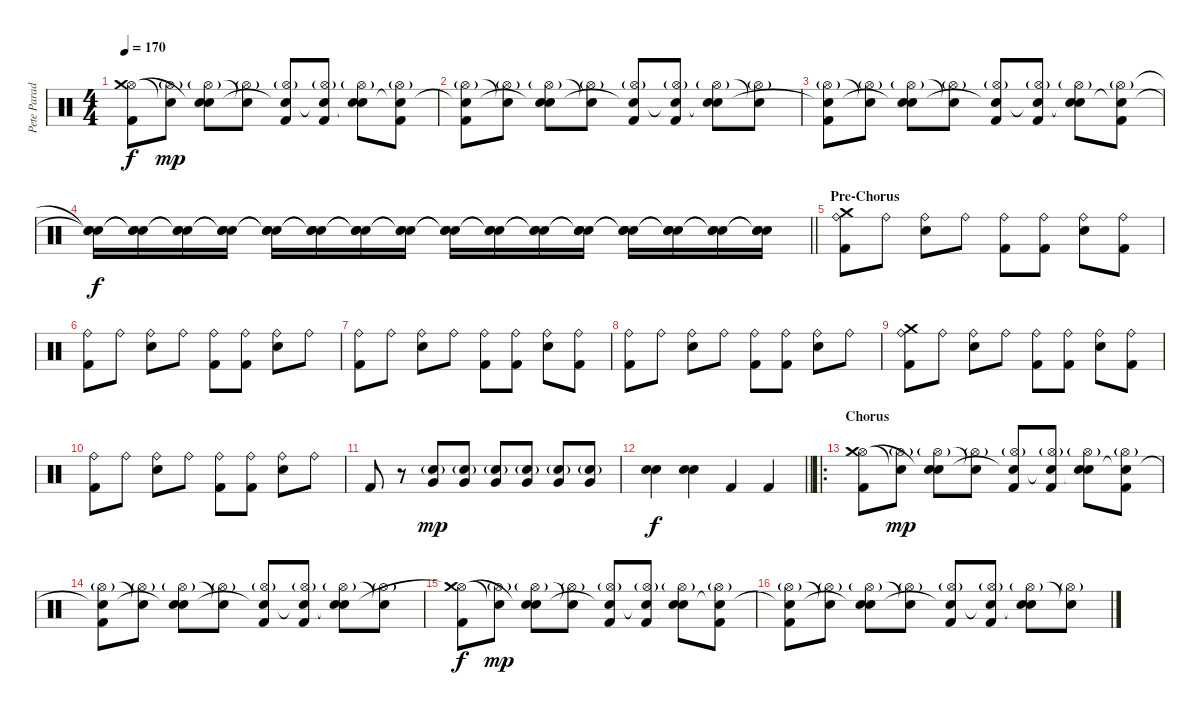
\track ("Pete Parada" "Pete Parad") {instrument percussion}
\staff {score}
\articulation defaults
\ts (4 4)
\tempo 170
\clef neutral
\ks c
("Kick (hit) 2" "Hi-Hat (open)" "Crash medium (hit)").8{dy f} ("Hi-Hat (open)"{g} "Snare (hit)"{t}).8{dy mp} ("Snare (hit) 2" "Hi-Hat (open)"{g} "Snare (hit)"{t}).8 ("Hi-Hat (open)"{g} "Snare (hit)"{t}).8 ("Kick (hit) 2" "Hi-Hat (open)"{g} "Snare (hit)"{t}).8 ("Kick (hit) 2" "Hi-Hat (open)"{g} "Snare (hit)"{t}).8 ("Snare (hit) 2" "Hi-Hat (open)"{g} "Snare (hit)"{t}).8 ("Kick (hit) 2" "Hi-Hat (open)"{g} "Snare (hit)"{t}).8 |
("Kick (hit) 2" "Hi-Hat (open)"{g} "Snare (hit)"{t}).8 ("Hi-Hat (open)"{g} "Snare (hit)"{t}).8 ("Snare (hit) 2" "Hi-Hat (open)"{g} "Snare (hit)"{t}).8 ("Hi-Hat (open)"{g} "Snare (hit)"{t}).8 ("Kick (hit) 2" "Hi-Hat (open)"{g} "Snare (hit)"{t}).8 ("Kick (hit) 2" "Hi-Hat (open)"{g} "Snare (hit)"{t}).8 ("Snare (hit) 2" "Hi-Hat (open)"{g} "Snare (hit)"{t}).8 ("Hi-Hat (open)"{g} "Snare (hit)"{t}).8 |
("Kick (hit) 2" "Hi-Hat (open)"{g} "Snare (hit)"{t}).8 ("Hi-Hat (open)"{g} "Snare (hit)"{t}).8 ("Snare (hit) 2" "Hi-Hat (open)"{g} "Snare (hit)"{t}).8 ("Hi-Hat (open)"{g} "Snare (hit)"{t}).8 ("Kick (hit) 2" "Hi-Hat (open)"{g} "Snare (hit)"{t}).8 ("Kick (hit) 2" "Hi-Hat (open)"{g} "Snare (hit)"{t}).8 ("Snare (hit) 2" "Hi-Hat (open)"{g} "Snare (hit)"{t}).8 ("Kick (hit) 2" "Hi-Hat (open)"{g} "Snare (hit)"{t}).8 |
\barLineRight lightlight
("Snare (hit) 2" "Snare (hit)"{t} "Snare (hit)"{t}).16{dy f} ("Snare (hit) 2" "Snare (hit)"{t} "Snare (hit)"{t}).16 ("Snare (hit) 2" "Snare (hit)"{t} "Snare (hit)"{t}).16 ("Snare (hit) 2" "Snare (hit)"{t} "Snare (hit)"{t}).16 ("Snare (hit) 2" "Snare (hit)"{t} "Snare (hit)"{t}).16 ("Snare (hit) 2" "Snare (hit)"{t} "Snare (hit)"{t}).16 ("Snare (hit) 2" "Snare (hit)"{t} "Snare (hit)"{t}).16 ("Snare (hit) 2" "Snare (hit)"{t} "Snare (hit)"{t}).16 ("Snare (hit) 2" "Snare (hit)"{t} "Snare (hit)"{t}).16 ("Snare (hit) 2" "Snare (hit)"{t} "Snare (hit)"{t}).16 ("Snare (hit) 2" "Snare (hit)"{t} "Snare (hit)"{t}).16 ("Snare (hit) 2" "Snare (hit)"{t} "Snare (hit)"{t}).16 ("Snare (hit) 2" "Snare (hit)"{t} "Snare (hit)"{t}).16 ("Snare (hit) 2" "Snare (hit)"{t} "Snare (hit)"{t}).16 ("Snare (hit) 2" "Snare (hit)"{t} "Snare (hit)"{t}).16 ("Snare (hit) 2" "Snare (hit)"{t} "Snare (hit)"{t}).16 |
\section ("" "Pre-Chorus")
("Kick (hit) 2" "Ride (bell)" "Crash medium (hit)").8 "Ride (bell)".8 ("Snare (hit) 2" "Ride (bell)").8 "Ride (bell)".8 ("Kick (hit) 2" "Ride (bell)").8 ("Kick (hit) 2" "Ride (bell)").8 ("Snare (hit) 2" "Ride (bell)").8 ("Kick (hit) 2" "Ride (bell)").8 |
("Kick (hit) 2" "Ride (bell)").8 "Ride (bell)".8 ("Snare (hit) 2" "Ride (bell)").8 "Ride (bell)".8 ("Kick (hit) 2" "Ride (bell)").8 ("Kick (hit) 2" "Ride (bell)").8 ("Snare (hit) 2" "Ride (bell)").8 "Ride (bell)".8 |
("Kick (hit) 2" "Ride (bell)").8 "Ride (bell)".8 ("Snare (hit) 2" "Ride (bell)").8 "Ride (bell)".8 ("Kick (hit) 2" "Ride (bell)").8 ("Kick (hit) 2" "Ride (bell)").8 ("Snare (hit) 2" "Ride (bell)").8 ("Kick (hit) 2" "Ride (bell)").8 |
("Kick (hit) 2" "Ride (bell)").8 "Ride (bell)".8 ("Snare (hit) 2" "Ride (bell)").8 "Ride (bell)".8 ("Kick (hit) 2" "Ride (bell)").8 ("Kick (hit) 2" "Ride (bell)").8 ("Snare (hit) 2" "Ride (bell)").8 "Ride (bell)".8 |
("Kick (hit) 2" "Ride (bell)" "Crash medium (hit)").8 "Ride (bell)".8 ("Snare (hit) 2" "Ride (bell)").8 "Ride (bell)".8 ("Kick (hit) 2" "Ride (bell)").8 ("Kick (hit) 2" "Ride (bell)").8 ("Snare (hit) 2" "Ride (bell)").8 ("Kick (hit) 2" "Ride (bell)").8 |
("Kick (hit) 2" "Ride (bell)").8 "Ride (bell)".8 ("Snare (hit) 2" "Ride (bell)").8 "Ride (bell)".8 ("Kick (hit) 2" "Ride (bell)").8 ("Kick (hit) 2" "Ride (bell)").8 ("Snare (hit) 2" "Ride (bell)").8 "Ride (bell)".8 |
"Kick (hit) 2".8 r.8 ("Snare (hit) 2"{g} "Very Low Tom (hit)").8{dy mp} ("Snare (hit) 2"{g} "Very Low Tom (hit)").8 ("Snare (hit) 2"{g} "Very Low Tom (hit)").8 ("Snare (hit) 2"{g} "Very Low Tom (hit)").8 ("Snare (hit) 2"{g} "Very Low Tom (hit)").8 ("Snare (hit) 2"{g} "Very Low Tom (hit)").8 |
\barLineRight lightlight
("Snare (hit) 2" "Snare (hit) 2").4{dy f} ("Snare (hit) 2" "Snare (hit) 2").4 "Kick (hit) 2".4 "Kick (hit) 2".4 |
\ro
\section ("" "Chorus")
("Kick (hit) 2" "Hi-Hat (open)" "Crash medium (hit)").8 ("Hi-Hat (open)"{g} "Snare (hit)"{t}).8{dy mp} ("Snare (hit) 2" "Hi-Hat (open)"{g} "Snare (hit)"{t}).8 ("Hi-Hat (open)"{g} "Snare (hit)"{t}).8 ("Kick (hit) 2" "Hi-Hat (open)"{g} "Snare (hit)"{t}).8 ("Kick (hit) 2" "Hi-Hat (open)"{g} "Snare (hit)"{t}).8 ("Snare (hit) 2" "Hi-Hat (open)"{g} "Snare (hit)"{t}).8 ("Kick (hit) 2" "Hi-Hat (open)"{g} "Snare (hit)"{t}).8 |
("Kick (hit) 2" "Hi-Hat (open)"{g} "Snare (hit)"{t}).8 ("Hi-Hat (open)"{g} "Snare (hit)"{t}).8 ("Snare (hit) 2" "Hi-Hat (open)"{g} "Snare (hit)"{t}).8 ("Hi-Hat (open)"{g} "Snare (hit)"{t}).8 ("Kick (hit) 2" "Hi-Hat (open)"{g} "Snare (hit)"{t}).8 ("Kick (hit) 2" "Hi-Hat (open)"{g} "Snare (hit)"{t}).8 ("Snare (hit) 2" "Hi-Hat (open)"{g} "Snare (hit)"{t}).8 ("Hi-Hat (open)"{g} "Snare (hit)"{t}).8 |
("Kick (hit) 2" "Hi-Hat (open)" "Crash medium (hit)"{t}).8{dy f} ("Hi-Hat (open)"{g} "Snare (hit)"{t}).8{dy mp} ("Snare (hit) 2" "Hi-Hat (open)"{g} "Snare (hit)"{t}).8 ("Hi-Hat (open)"{g} "Snare (hit)"{t}).8 ("Kick (hit) 2" "Hi-Hat (open)"{g} "Snare (hit)"{t}).8 ("Kick (hit) 2" "Hi-Hat (open)"{g} "Snare (hit)"{t}).8 ("Snare (hit) 2" "Hi-Hat (open)"{g} "Snare (hit)"{t}).8 ("Kick (hit) 2" "Hi-Hat (open)"{g} "Snare (hit)"{t}).8 |
("Kick (hit) 2" "Hi-Hat (open)"{g} "Snare (hit)"{t}).8 ("Hi-Hat (open)"{g} "Snare (hit)"{t}).8 ("Snare (hit) 2" "Hi-Hat (open)"{g} "Snare (hit)"{t}).8 ("Hi-Hat (open)"{g} "Snare (hit)"{t}).8 ("Kick (hit) 2" "Hi-Hat (open)"{g} "Snare (hit)"{t}).8 ("Kick (hit) 2" "Hi-Hat (open)"{g} "Snare (hit)"{t}).8 ("Snare (hit) 2" "Hi-Hat (open)"{g} "Snare (hit)"{t}).8 ("Hi-Hat (open)"{g} "Snare (hit)"{t}).8
